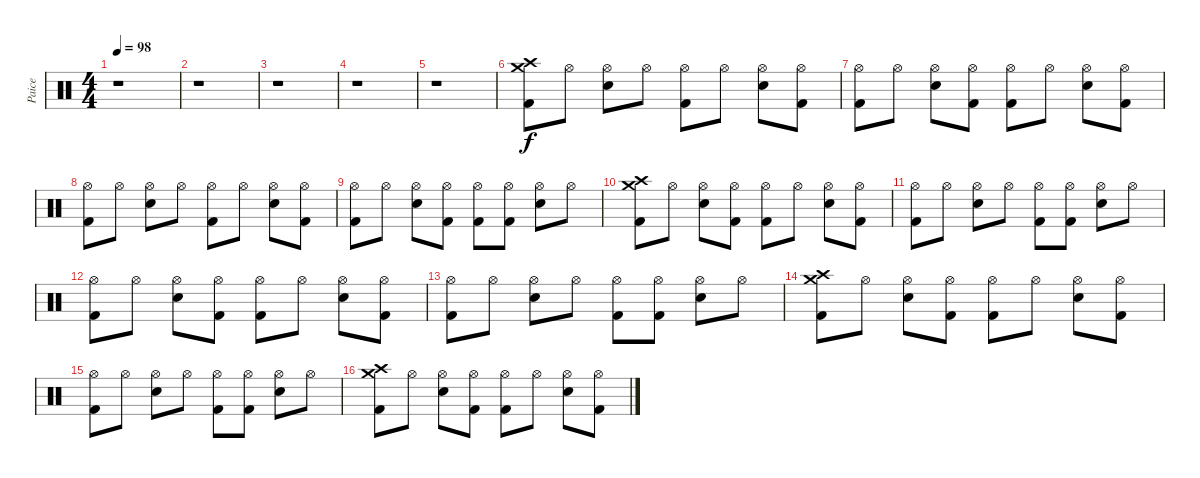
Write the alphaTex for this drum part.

\track ("Paice" "Paice") {instrument percussion}
\staff {score}
\articulation defaults
\ts (4 4)
\tempo 98
\clef neutral
\ks c
r.1{dy f} |
r.1 |
r.1 |
r.1 |
r.1 |
("Crash high (hit)" "Crash medium (hit)" "Kick (hit) 2").8 "Hi-Hat (open)".8 ("Hi-Hat (open)" "Electric Snare (hit)").8 "Hi-Hat (open)".8 ("Hi-Hat (open)" "Kick (hit) 2").8 "Hi-Hat (open)".8 ("Hi-Hat (open)" "Electric Snare (hit)").8 ("Hi-Hat (open)" "Kick (hit) 2").8 |
("Hi-Hat (open)" "Kick (hit) 2").8 "Hi-Hat (open)".8 ("Hi-Hat (open)" "Electric Snare (hit)").8 ("Hi-Hat (open)" "Kick (hit) 2").8 ("Hi-Hat (open)" "Kick (hit) 2").8 "Hi-Hat (open)".8 ("Hi-Hat (open)" "Electric Snare (hit)").8 ("Hi-Hat (open)" "Kick (hit) 2").8 |
("Hi-Hat (open)" "Kick (hit) 2").8 "Hi-Hat (open)".8 ("Hi-Hat (open)" "Electric Snare (hit)").8 "Hi-Hat (open)".8 ("Hi-Hat (open)" "Kick (hit) 2").8 "Hi-Hat (open)".8 ("Hi-Hat (open)" "Electric Snare (hit)").8 ("Hi-Hat (open)" "Kick (hit) 2").8 |
("Hi-Hat (open)" "Kick (hit) 2").8 "Hi-Hat (open)".8 ("Hi-Hat (open)" "Electric Snare (hit)").8 ("Hi-Hat (open)" "Kick (hit) 2").8 ("Hi-Hat (open)" "Kick (hit) 2").8 ("Hi-Hat (open)" "Kick (hit) 2").8 ("Hi-Hat (open)" "Electric Snare (hit)").8 "Hi-Hat (open)".8 |
("Crash high (hit)" "Crash medium (hit)" "Kick (hit) 2").8 "Hi-Hat (open)".8 ("Hi-Hat (open)" "Electric Snare (hit)").8 ("Hi-Hat (open)" "Kick (hit) 2").8 ("Hi-Hat (open)" "Kick (hit) 2").8 "Hi-Hat (open)".8 ("Hi-Hat (open)" "Electric Snare (hit)").8 ("Hi-Hat (open)" "Kick (hit) 2").8 |
("Hi-Hat (open)" "Kick (hit) 2").8 "Hi-Hat (open)".8 ("Hi-Hat (open)" "Electric Snare (hit)").8 "Hi-Hat (open)".8 ("Hi-Hat (open)" "Kick (hit) 2").8 ("Hi-Hat (open)" "Kick (hit) 2").8 ("Hi-Hat (open)" "Electric Snare (hit)").8 "Hi-Hat (open)".8 |
("Hi-Hat (open)" "Kick (hit) 2").8 "Hi-Hat (open)".8 ("Hi-Hat (open)" "Electric Snare (hit)").8 ("Hi-Hat (open)" "Kick (hit) 2").8 ("Hi-Hat (open)" "Kick (hit) 2").8 "Hi-Hat (open)".8 ("Hi-Hat (open)" "Electric Snare (hit)").8 ("Hi-Hat (open)" "Kick (hit) 2").8 |
("Hi-Hat (open)" "Kick (hit) 2").8 "Hi-Hat (open)".8 ("Hi-Hat (open)" "Electric Snare (hit)").8 "Hi-Hat (open)".8 ("Hi-Hat (open)" "Kick (hit) 2").8 ("Hi-Hat (open)" "Kick (hit) 2").8 ("Hi-Hat (open)" "Electric Snare (hit)").8 "Hi-Hat (open)".8 |
("Crash high (hit)" "Crash medium (hit)" "Kick (hit) 2").8 "Hi-Hat (open)".8 ("Hi-Hat (open)" "Electric Snare (hit)").8 ("Hi-Hat (open)" "Kick (hit) 2").8 ("Hi-Hat (open)" "Kick (hit) 2").8 "Hi-Hat (open)".8 ("Hi-Hat (open)" "Electric Snare (hit)").8 ("Hi-Hat (open)" "Kick (hit) 2").8 |
("Hi-Hat (open)" "Kick (hit) 2").8 "Hi-Hat (open)".8 ("Hi-Hat (open)" "Electric Snare (hit)").8 "Hi-Hat (open)".8 ("Hi-Hat (open)" "Kick (hit) 2").8 ("Hi-Hat (open)" "Kick (hit) 2").8 ("Hi-Hat (open)" "Electric Snare (hit)").8 "Hi-Hat (open)".8 |
("Crash high (hit)" "Crash medium (hit)" "Kick (hit) 2").8 "Hi-Hat (open)".8 ("Hi-Hat (open)" "Electric Snare (hit)").8 ("Hi-Hat (open)" "Kick (hit) 2").8 ("Hi-Hat (open)" "Kick (hit) 2").8 "Hi-Hat (open)".8 ("Hi-Hat (open)" "Electric Snare (hit)").8 ("Hi-Hat (open)" "Kick (hit) 2").8
